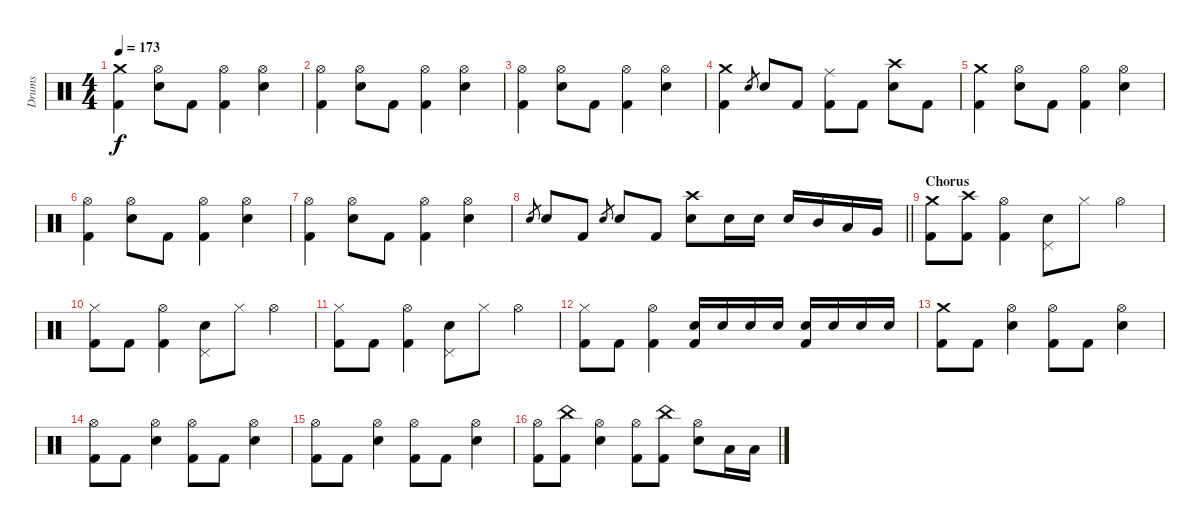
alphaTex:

\track ("Drums" "Drums") {instrument percussion}
\staff {score}
\articulation defaults
\ts (4 4)
\tempo 173
\clef neutral
\ks c
("Crash medium (hit)" "Kick (hit) 2").4{dy f} ("Hi-Hat (open)" "Electric Snare (hit)").8 "Kick (hit) 2".8 ("Hi-Hat (open)" "Kick (hit) 2").4 ("Hi-Hat (open)" "Electric Snare (hit)").4 |
("Hi-Hat (open)" "Kick (hit) 2").4 ("Hi-Hat (open)" "Electric Snare (hit)").8 "Kick (hit) 2".8 ("Hi-Hat (open)" "Kick (hit) 2").4 ("Hi-Hat (open)" "Electric Snare (hit)").4 |
("Hi-Hat (open)" "Kick (hit) 2").4 ("Hi-Hat (open)" "Electric Snare (hit)").8 "Kick (hit) 2".8 ("Hi-Hat (open)" "Kick (hit) 2").4 ("Hi-Hat (open)" "Electric Snare (hit)").4 |
("Crash medium (hit)" "Kick (hit) 2").4 "Electric Snare (hit)".8{gr} "Electric Snare (hit)".8 "Kick (hit) 2".8 ("Ride (middle)" "Kick (hit) 2").8 "Kick (hit) 2".8 ("Crash high (hit)" "Electric Snare (hit)").8 "Kick (hit) 2".8 |
("Crash medium (hit)" "Kick (hit) 2").4 ("Hi-Hat (open)" "Electric Snare (hit)").8 "Kick (hit) 2".8 ("Hi-Hat (open)" "Kick (hit) 2").4 ("Hi-Hat (open)" "Electric Snare (hit)").4 |
("Hi-Hat (open)" "Kick (hit) 2").4 ("Hi-Hat (open)" "Electric Snare (hit)").8 "Kick (hit) 2".8 ("Hi-Hat (open)" "Kick (hit) 2").4 ("Hi-Hat (open)" "Electric Snare (hit)").4 |
("Hi-Hat (open)" "Kick (hit) 2").4 ("Hi-Hat (open)" "Electric Snare (hit)").8 "Kick (hit) 2".8 ("Hi-Hat (open)" "Kick (hit) 2").4 ("Hi-Hat (open)" "Electric Snare (hit)").4 |
\barLineRight lightlight "Electric Snare (hit)".8{gr} "Electric Snare (hit)".8 "Kick (hit) 2".8 "Electric Snare (hit)".8{gr} "Electric Snare (hit)".8 "Kick (hit) 2".8
("Crash high (hit)" "Electric Snare (hit)").8 "Electric Snare (hit)".16 "Electric Snare (hit)".16 "Electric Snare (hit)".16 "Mid Tom (hit)".16 "Low Tom (hit)".16 "Very Low Tom (hit)".16 |
\section ("" "Chorus")
("Crash medium (hit)" "Kick (hit) 2").8 ("Crash high (hit)" "Kick (hit) 2").8 ("Hi-Hat (open)" "Kick (hit) 2").4 ("Pedal Hi-Hat (hit)" "Electric Snare (hit)").8 "Hi-Hat (closed)".8 "Hi-Hat (open)".4 |
("Hi-Hat (closed)" "Kick (hit) 2").8 "Kick (hit) 2".8 ("Hi-Hat (open)" "Kick (hit) 2").4 ("Pedal Hi-Hat (hit)" "Electric Snare (hit)").8 "Hi-Hat (closed)".8 "Hi-Hat (open)".4 |
("Hi-Hat (closed)" "Kick (hit) 2").8 "Kick (hit) 2".8 ("Hi-Hat (open)" "Kick (hit) 2").4 ("Pedal Hi-Hat (hit)" "Electric Snare (hit)").8 "Hi-Hat (closed)".8 "Hi-Hat (open)".4 |
("Hi-Hat (closed)" "Kick (hit) 2").8 "Kick (hit) 2".8 ("Hi-Hat (open)" "Kick (hit) 2").4 ("Electric Snare (hit)" "Kick (hit) 2").16 "Electric Snare (hit)".16 "Electric Snare (hit)".16 "Electric Snare (hit)".16 ("Electric Snare (hit)" "Kick (hit) 2").16 "Electric Snare (hit)".16 "Electric Snare (hit)".16 "Electric Snare (hit)".16 |
("Crash medium (hit)" "Kick (hit) 2").8 "Kick (hit) 2".8 ("Hi-Hat (open)" "Electric Snare (hit)").4 ("Hi-Hat (open)" "Kick (hit) 2").8 "Kick (hit) 2".8 ("Hi-Hat (open)" "Electric Snare (hit)").4 |
("Hi-Hat (open)" "Kick (hit) 2").8 "Kick (hit) 2".8 ("Hi-Hat (open)" "Electric Snare (hit)").4 ("Hi-Hat (open)" "Kick (hit) 2").8 "Kick (hit) 2".8 ("Hi-Hat (open)" "Electric Snare (hit)").4 |
("Hi-Hat (open)" "Kick (hit) 2").8 "Kick (hit) 2".8 ("Hi-Hat (open)" "Electric Snare (hit)").4 ("Hi-Hat (open)" "Kick (hit) 2").8 "Kick (hit) 2".8 ("Hi-Hat (open)" "Electric Snare (hit)").4 |
("Hi-Hat (open)" "Kick (hit) 2").8 ("China (hit)" "Kick (hit) 2").8 ("Hi-Hat (open)" "Electric Snare (hit)").4 ("Hi-Hat (open)" "Kick (hit) 2").8 ("China (hit)" "Kick (hit) 2").8 ("Hi-Hat (open)" "Electric Snare (hit)").8 "Low Tom (hit)".16 "Low Tom (hit)".16
